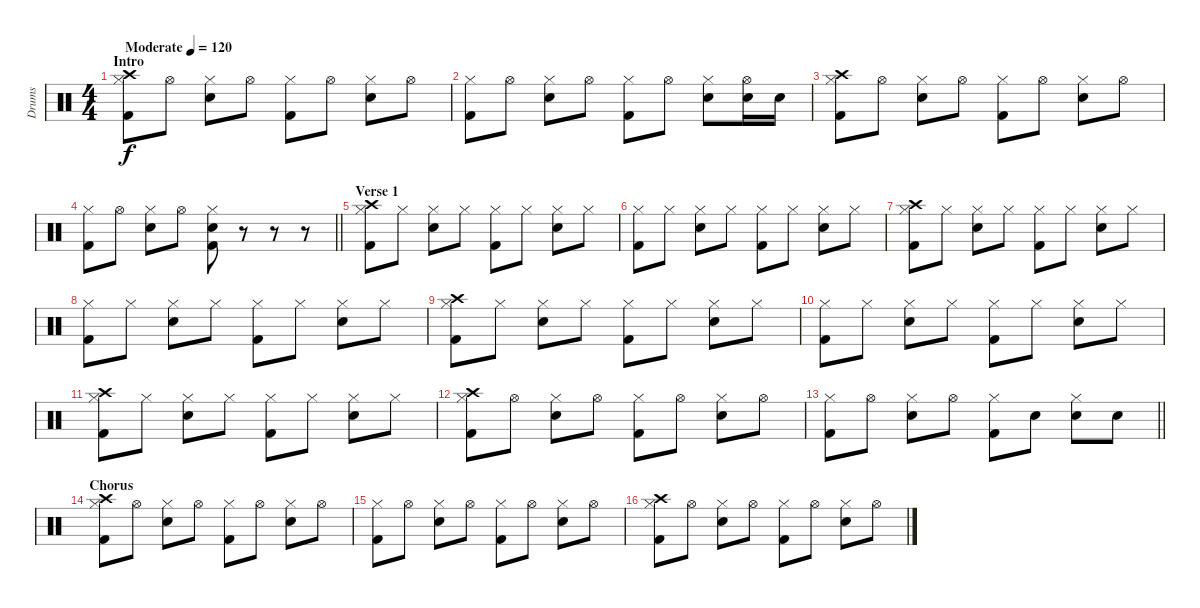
\track ("Drums" "Drums") {instrument percussion}
\staff {score}
\articulation defaults
\ts (4 4)
\section ("" "Intro")
\tempo (120 "Moderate")
\clef neutral
\ks c
("Crash high (hit)" "Hi-Hat (closed)" "Kick (hit) 2").8{dy f} "Hi-Hat (open)".8 ("Hi-Hat (closed)" "Snare (hit) 2").8 "Hi-Hat (open)".8 ("Hi-Hat (closed)" "Kick (hit) 2").8 "Hi-Hat (open)".8 ("Hi-Hat (closed)" "Snare (hit) 2").8 "Hi-Hat (open)".8 |
("Hi-Hat (closed)" "Kick (hit) 2").8 "Hi-Hat (open)".8 ("Hi-Hat (closed)" "Snare (hit) 2").8 "Hi-Hat (open)".8 ("Hi-Hat (closed)" "Kick (hit) 2").8 "Hi-Hat (open)".8 ("Hi-Hat (closed)" "Snare (hit) 2").8 ("Hi-Hat (open)" "Snare (hit) 2").16 "Snare (hit) 2".16 |
("Crash high (hit)" "Hi-Hat (closed)" "Kick (hit) 2").8 "Hi-Hat (open)".8 ("Hi-Hat (closed)" "Snare (hit) 2").8 "Hi-Hat (open)".8 ("Hi-Hat (closed)" "Kick (hit) 2").8 "Hi-Hat (open)".8 ("Hi-Hat (closed)" "Snare (hit) 2").8 "Hi-Hat (open)".8 |
\barLineRight lightlight
("Hi-Hat (closed)" "Kick (hit) 2").8 "Hi-Hat (open)".8 ("Hi-Hat (closed)" "Snare (hit) 2").8 "Hi-Hat (open)".8 ("Hi-Hat (closed)" "Snare (hit) 2" "Kick (hit) 2").8 r.8 r.8 r.8 |
\section ("" "Verse 1")
("Crash high (hit)" "Hi-Hat (closed)" "Kick (hit) 2").8 "Hi-Hat (closed)".8 ("Hi-Hat (closed)" "Snare (hit) 2").8 "Hi-Hat (closed)".8 ("Hi-Hat (closed)" "Kick (hit) 2").8 "Hi-Hat (closed)".8 ("Hi-Hat (closed)" "Snare (hit) 2").8 "Hi-Hat (closed)".8 |
("Hi-Hat (closed)" "Kick (hit) 2").8 "Hi-Hat (closed)".8 ("Hi-Hat (closed)" "Snare (hit) 2").8 "Hi-Hat (closed)".8 ("Hi-Hat (closed)" "Kick (hit) 2").8 "Hi-Hat (closed)".8 ("Hi-Hat (closed)" "Snare (hit) 2").8 "Hi-Hat (closed)".8 |
("Crash high (hit)" "Hi-Hat (closed)" "Kick (hit) 2").8 "Hi-Hat (closed)".8 ("Hi-Hat (closed)" "Snare (hit) 2").8 "Hi-Hat (closed)".8 ("Hi-Hat (closed)" "Kick (hit) 2").8 "Hi-Hat (closed)".8 ("Hi-Hat (closed)" "Snare (hit) 2").8 "Hi-Hat (closed)".8 |
("Hi-Hat (closed)" "Kick (hit) 2").8 "Hi-Hat (closed)".8 ("Hi-Hat (closed)" "Snare (hit) 2").8 "Hi-Hat (closed)".8 ("Hi-Hat (closed)" "Kick (hit) 2").8 "Hi-Hat (closed)".8 ("Hi-Hat (closed)" "Snare (hit) 2").8 "Hi-Hat (closed)".8 |
("Crash high (hit)" "Hi-Hat (closed)" "Kick (hit) 2").8 "Hi-Hat (closed)".8 ("Hi-Hat (closed)" "Snare (hit) 2").8 "Hi-Hat (closed)".8 ("Hi-Hat (closed)" "Kick (hit) 2").8 "Hi-Hat (closed)".8 ("Hi-Hat (closed)" "Snare (hit) 2").8 "Hi-Hat (closed)".8 |
("Hi-Hat (closed)" "Kick (hit) 2").8 "Hi-Hat (closed)".8 ("Hi-Hat (closed)" "Snare (hit) 2").8 "Hi-Hat (closed)".8 ("Hi-Hat (closed)" "Kick (hit) 2").8 "Hi-Hat (closed)".8 ("Hi-Hat (closed)" "Snare (hit) 2").8 "Hi-Hat (closed)".8 |
("Crash high (hit)" "Hi-Hat (closed)" "Kick (hit) 2").8 "Hi-Hat (closed)".8 ("Hi-Hat (closed)" "Snare (hit) 2").8 "Hi-Hat (closed)".8 ("Hi-Hat (closed)" "Kick (hit) 2").8 "Hi-Hat (closed)".8 ("Hi-Hat (closed)" "Snare (hit) 2").8 "Hi-Hat (closed)".8 |
("Crash high (hit)" "Hi-Hat (closed)" "Kick (hit) 2").8 "Hi-Hat (open)".8 ("Hi-Hat (closed)" "Snare (hit) 2").8 "Hi-Hat (open)".8 ("Hi-Hat (closed)" "Kick (hit) 2").8 "Hi-Hat (open)".8 ("Hi-Hat (closed)" "Snare (hit) 2").8 "Hi-Hat (open)".8 |
\barLineRight lightlight
("Hi-Hat (closed)" "Kick (hit) 2").8 "Hi-Hat (open)".8 ("Hi-Hat (closed)" "Snare (hit) 2").8 "Hi-Hat (open)".8 ("Hi-Hat (closed)" "Kick (hit) 2").8 "Snare (hit) 2".8 ("Hi-Hat (closed)" "Snare (hit) 2").8 "Snare (hit) 2".8 |
\section ("" "Chorus")
("Crash high (hit)" "Hi-Hat (closed)" "Kick (hit) 2").8 "Hi-Hat (open)".8 ("Hi-Hat (closed)" "Snare (hit) 2").8 "Hi-Hat (open)".8 ("Hi-Hat (closed)" "Kick (hit) 2").8 "Hi-Hat (open)".8 ("Hi-Hat (closed)" "Snare (hit) 2").8 "Hi-Hat (open)".8 |
("Hi-Hat (closed)" "Kick (hit) 2").8 "Hi-Hat (open)".8 ("Hi-Hat (closed)" "Snare (hit) 2").8 "Hi-Hat (open)".8 ("Hi-Hat (closed)" "Kick (hit) 2").8 "Hi-Hat (open)".8 ("Hi-Hat (closed)" "Snare (hit) 2").8 "Hi-Hat (open)".8 |
("Crash high (hit)" "Hi-Hat (closed)" "Kick (hit) 2").8 "Hi-Hat (open)".8 ("Hi-Hat (closed)" "Snare (hit) 2").8 "Hi-Hat (open)".8 ("Hi-Hat (closed)" "Kick (hit) 2").8 "Hi-Hat (open)".8 ("Hi-Hat (closed)" "Snare (hit) 2").8 "Hi-Hat (open)".8
